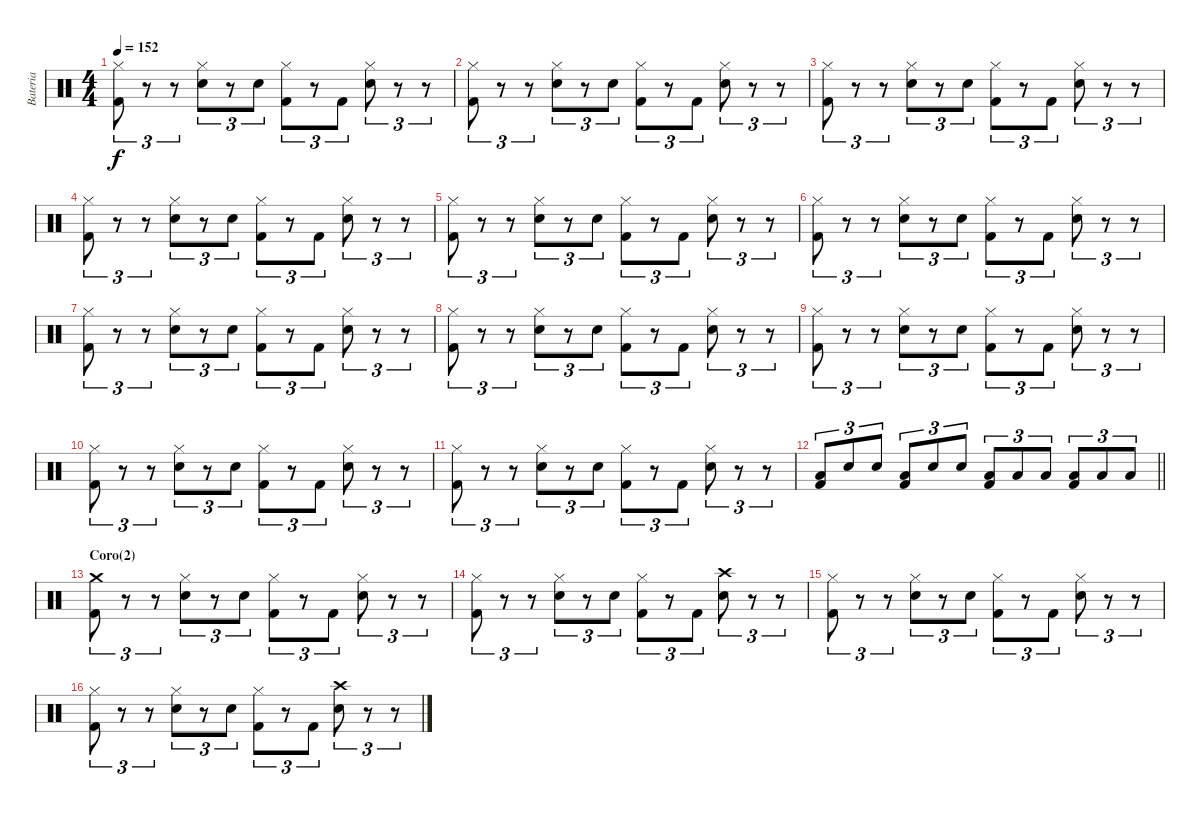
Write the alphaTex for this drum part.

\track ("Bateria" "Bateria") {instrument percussion}
\staff {score}
\articulation defaults
\ts (4 4)
\tempo 152
\clef neutral
\ks c
("Hi-Hat (closed)" "Kick (hit) 2").8{tu (3 2) dy f} r.8{tu (3 2)} r.8{tu (3 2)} ("Hi-Hat (closed)" "Snare (hit) 2").8{tu (3 2)} r.8{tu (3 2)} "Snare (hit) 2".8{tu (3 2)} ("Hi-Hat (closed)" "Kick (hit) 2").8{tu (3 2)} r.8{tu (3 2)} "Kick (hit) 2".8{tu (3 2)} ("Hi-Hat (closed)" "Snare (hit) 2").8{tu (3 2)} r.8{tu (3 2)} r.8{tu (3 2)} |
("Hi-Hat (closed)" "Kick (hit) 2").8{tu (3 2)} r.8{tu (3 2)} r.8{tu (3 2)} ("Hi-Hat (closed)" "Snare (hit) 2").8{tu (3 2)} r.8{tu (3 2)} "Snare (hit) 2".8{tu (3 2)} ("Hi-Hat (closed)" "Kick (hit) 2").8{tu (3 2)} r.8{tu (3 2)} "Kick (hit) 2".8{tu (3 2)} ("Hi-Hat (closed)" "Snare (hit) 2").8{tu (3 2)} r.8{tu (3 2)} r.8{tu (3 2)} |
("Hi-Hat (closed)" "Kick (hit) 2").8{tu (3 2)} r.8{tu (3 2)} r.8{tu (3 2)} ("Hi-Hat (closed)" "Snare (hit) 2").8{tu (3 2)} r.8{tu (3 2)} "Snare (hit) 2".8{tu (3 2)} ("Hi-Hat (closed)" "Kick (hit) 2").8{tu (3 2)} r.8{tu (3 2)} "Kick (hit) 2".8{tu (3 2)} ("Hi-Hat (closed)" "Snare (hit) 2").8{tu (3 2)} r.8{tu (3 2)} r.8{tu (3 2)} |
("Hi-Hat (closed)" "Kick (hit) 2").8{tu (3 2)} r.8{tu (3 2)} r.8{tu (3 2)} ("Hi-Hat (closed)" "Snare (hit) 2").8{tu (3 2)} r.8{tu (3 2)} "Snare (hit) 2".8{tu (3 2)} ("Hi-Hat (closed)" "Kick (hit) 2").8{tu (3 2)} r.8{tu (3 2)} "Kick (hit) 2".8{tu (3 2)} ("Hi-Hat (closed)" "Snare (hit) 2").8{tu (3 2)} r.8{tu (3 2)} r.8{tu (3 2)} |
("Hi-Hat (closed)" "Kick (hit) 2").8{tu (3 2)} r.8{tu (3 2)} r.8{tu (3 2)} ("Hi-Hat (closed)" "Snare (hit) 2").8{tu (3 2)} r.8{tu (3 2)} "Snare (hit) 2".8{tu (3 2)} ("Hi-Hat (closed)" "Kick (hit) 2").8{tu (3 2)} r.8{tu (3 2)} "Kick (hit) 2".8{tu (3 2)} ("Hi-Hat (closed)" "Snare (hit) 2").8{tu (3 2)} r.8{tu (3 2)} r.8{tu (3 2)} |
("Hi-Hat (closed)" "Kick (hit) 2").8{tu (3 2)} r.8{tu (3 2)} r.8{tu (3 2)} ("Hi-Hat (closed)" "Snare (hit) 2").8{tu (3 2)} r.8{tu (3 2)} "Snare (hit) 2".8{tu (3 2)} ("Hi-Hat (closed)" "Kick (hit) 2").8{tu (3 2)} r.8{tu (3 2)} "Kick (hit) 2".8{tu (3 2)} ("Hi-Hat (closed)" "Snare (hit) 2").8{tu (3 2)} r.8{tu (3 2)} r.8{tu (3 2)} |
("Hi-Hat (closed)" "Kick (hit) 2").8{tu (3 2)} r.8{tu (3 2)} r.8{tu (3 2)} ("Hi-Hat (closed)" "Snare (hit) 2").8{tu (3 2)} r.8{tu (3 2)} "Snare (hit) 2".8{tu (3 2)} ("Hi-Hat (closed)" "Kick (hit) 2").8{tu (3 2)} r.8{tu (3 2)} "Kick (hit) 2".8{tu (3 2)} ("Hi-Hat (closed)" "Snare (hit) 2").8{tu (3 2)} r.8{tu (3 2)} r.8{tu (3 2)} |
("Hi-Hat (closed)" "Kick (hit) 2").8{tu (3 2)} r.8{tu (3 2)} r.8{tu (3 2)} ("Hi-Hat (closed)" "Snare (hit) 2").8{tu (3 2)} r.8{tu (3 2)} "Snare (hit) 2".8{tu (3 2)} ("Hi-Hat (closed)" "Kick (hit) 2").8{tu (3 2)} r.8{tu (3 2)} "Kick (hit) 2".8{tu (3 2)} ("Hi-Hat (closed)" "Snare (hit) 2").8{tu (3 2)} r.8{tu (3 2)} r.8{tu (3 2)} |
("Hi-Hat (closed)" "Kick (hit) 2").8{tu (3 2)} r.8{tu (3 2)} r.8{tu (3 2)} ("Hi-Hat (closed)" "Snare (hit) 2").8{tu (3 2)} r.8{tu (3 2)} "Snare (hit) 2".8{tu (3 2)} ("Hi-Hat (closed)" "Kick (hit) 2").8{tu (3 2)} r.8{tu (3 2)} "Kick (hit) 2".8{tu (3 2)} ("Hi-Hat (closed)" "Snare (hit) 2").8{tu (3 2)} r.8{tu (3 2)} r.8{tu (3 2)} |
("Hi-Hat (closed)" "Kick (hit) 2").8{tu (3 2)} r.8{tu (3 2)} r.8{tu (3 2)} ("Hi-Hat (closed)" "Snare (hit) 2").8{tu (3 2)} r.8{tu (3 2)} "Snare (hit) 2".8{tu (3 2)} ("Hi-Hat (closed)" "Kick (hit) 2").8{tu (3 2)} r.8{tu (3 2)} "Kick (hit) 2".8{tu (3 2)} ("Hi-Hat (closed)" "Snare (hit) 2").8{tu (3 2)} r.8{tu (3 2)} r.8{tu (3 2)} |
("Hi-Hat (closed)" "Kick (hit) 2").8{tu (3 2)} r.8{tu (3 2)} r.8{tu (3 2)} ("Hi-Hat (closed)" "Snare (hit) 2").8{tu (3 2)} r.8{tu (3 2)} "Snare (hit) 2".8{tu (3 2)} ("Hi-Hat (closed)" "Kick (hit) 2").8{tu (3 2)} r.8{tu (3 2)} "Kick (hit) 2".8{tu (3 2)} ("Hi-Hat (closed)" "Snare (hit) 2").8{tu (3 2)} r.8{tu (3 2)} r.8{tu (3 2)} |
\barLineRight lightlight
("Low Floor Tom (hit)" "Kick (hit) 2").8{tu (3 2)} "Snare (hit) 2".8{tu (3 2)} "Snare (hit) 2".8{tu (3 2)} ("Low Floor Tom (hit)" "Kick (hit) 2").8{tu (3 2)} "Snare (hit) 2".8{tu (3 2)} "Snare (hit) 2".8{tu (3 2)} ("Low Floor Tom (hit)" "Kick (hit) 2").8{tu (3 2)} "Low Tom (hit)".8{tu (3 2)} "Low Tom (hit)".8{tu (3 2)} ("Low Floor Tom (hit)" "Kick (hit) 2").8{tu (3 2)} "Low Floor Tom (hit)".8{tu (3 2)} "Low Floor Tom (hit)".8{tu (3 2)} |
\section ("" "Coro(2)")
("Crash medium (hit)" "Kick (hit) 2").8{tu (3 2)} r.8{tu (3 2)} r.8{tu (3 2)} ("Hi-Hat (closed)" "Snare (hit) 2").8{tu (3 2)} r.8{tu (3 2)} "Snare (hit) 2".8{tu (3 2)} ("Hi-Hat (closed)" "Kick (hit) 2").8{tu (3 2)} r.8{tu (3 2)} "Kick (hit) 2".8{tu (3 2)} ("Hi-Hat (closed)" "Snare (hit) 2").8{tu (3 2)} r.8{tu (3 2)} r.8{tu (3 2)} |
("Hi-Hat (closed)" "Kick (hit) 2").8{tu (3 2)} r.8{tu (3 2)} r.8{tu (3 2)} ("Hi-Hat (closed)" "Snare (hit) 2").8{tu (3 2)} r.8{tu (3 2)} "Snare (hit) 2".8{tu (3 2)} ("Hi-Hat (closed)" "Kick (hit) 2").8{tu (3 2)} r.8{tu (3 2)} "Kick (hit) 2".8{tu (3 2)} ("Crash high (hit)" "Snare (hit) 2").8{tu (3 2)} r.8{tu (3 2)} r.8{tu (3 2)} |
("Hi-Hat (closed)" "Kick (hit) 2").8{tu (3 2)} r.8{tu (3 2)} r.8{tu (3 2)} ("Hi-Hat (closed)" "Snare (hit) 2").8{tu (3 2)} r.8{tu (3 2)} "Snare (hit) 2".8{tu (3 2)} ("Hi-Hat (closed)" "Kick (hit) 2").8{tu (3 2)} r.8{tu (3 2)} "Kick (hit) 2".8{tu (3 2)} ("Hi-Hat (closed)" "Snare (hit) 2").8{tu (3 2)} r.8{tu (3 2)} r.8{tu (3 2)} |
("Hi-Hat (closed)" "Kick (hit) 2").8{tu (3 2)} r.8{tu (3 2)} r.8{tu (3 2)} ("Hi-Hat (closed)" "Snare (hit) 2").8{tu (3 2)} r.8{tu (3 2)} "Snare (hit) 2".8{tu (3 2)} ("Hi-Hat (closed)" "Kick (hit) 2").8{tu (3 2)} r.8{tu (3 2)} "Kick (hit) 2".8{tu (3 2)} ("Crash high (hit)" "Snare (hit) 2").8{tu (3 2)} r.8{tu (3 2)} r.8{tu (3 2)}
